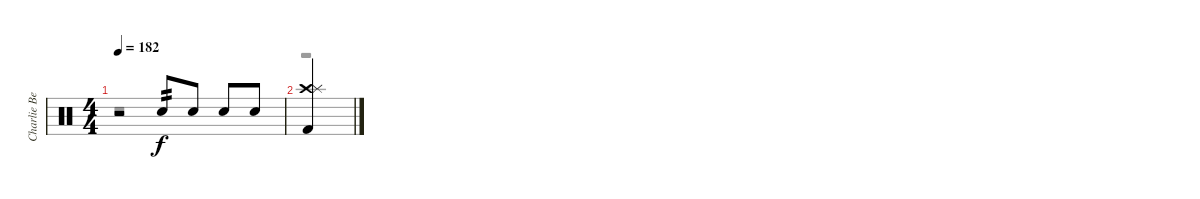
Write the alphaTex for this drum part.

\track ("Charlie Benante" "Charlie Be") {instrument percussion}
\staff {score}
\articulation defaults
\voice
\ts (4 4)
\tempo 182
\clef neutral
\ks c
r.2{dy f} "Electric Snare (hit)".8{tp 2} "Electric Snare (hit)".8 "Electric Snare (hit)".8 "Electric Snare (hit)".8 |
("Crash high (hit)" "Splash (hit)" "Kick (hit) 2").4
\voice
\clef neutral
\ottava regular
\simile none
\ks c
r.1{dy f} |
r.1
